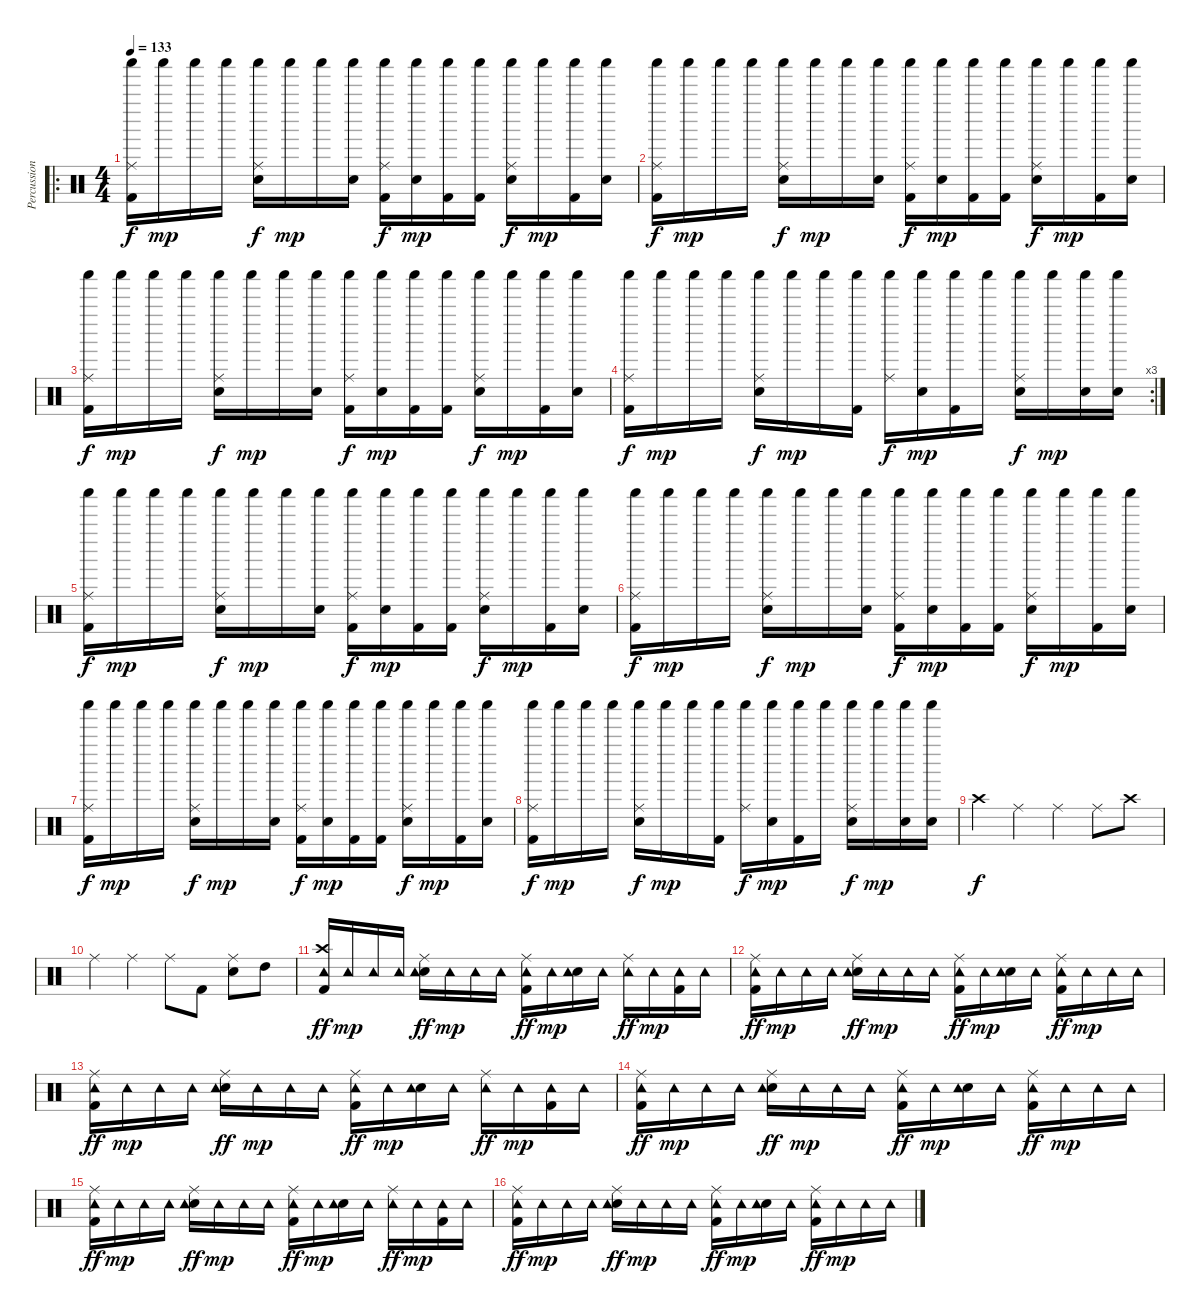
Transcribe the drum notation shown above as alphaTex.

\track ("Percussion" "Percussion") {instrument percussion}
\staff {score}
\articulation defaults
\ro
\ts (4 4)
\tempo 133
\clef neutral
\ks c
("Ride (middle)" "Kick (hit) 2" "Shaker (hit)").16{dy f} "Shaker (hit)".16{dy mp} "Shaker (hit)".16 "Shaker (hit)".16 ("Ride (middle)" "Electric Snare (hit)" "Shaker (hit)").16{dy f} "Shaker (hit)".16{dy mp} "Shaker (hit)".16 ("Electric Snare (hit)" "Shaker (hit)").16 ("Ride (middle)" "Kick (hit) 2" "Shaker (hit)").16{dy f} ("Electric Snare (hit)" "Shaker (hit)").16{dy mp} ("Kick (hit) 2" "Shaker (hit)").16 ("Kick (hit) 2" "Shaker (hit)").16 ("Ride (middle)" "Electric Snare (hit)" "Shaker (hit)").16{dy f} "Shaker (hit)".16{dy mp} ("Kick (hit) 2" "Shaker (hit)").16 ("Electric Snare (hit)" "Shaker (hit)").16 |
("Ride (middle)" "Kick (hit) 2" "Shaker (hit)").16{dy f} "Shaker (hit)".16{dy mp} "Shaker (hit)".16 "Shaker (hit)".16 ("Ride (middle)" "Electric Snare (hit)" "Shaker (hit)").16{dy f} "Shaker (hit)".16{dy mp} "Shaker (hit)".16 ("Electric Snare (hit)" "Shaker (hit)").16 ("Ride (middle)" "Kick (hit) 2" "Shaker (hit)").16{dy f} ("Electric Snare (hit)" "Shaker (hit)").16{dy mp} ("Kick (hit) 2" "Shaker (hit)").16 ("Kick (hit) 2" "Shaker (hit)").16 ("Ride (middle)" "Electric Snare (hit)" "Shaker (hit)").16{dy f} "Shaker (hit)".16{dy mp} ("Kick (hit) 2" "Shaker (hit)").16 ("Electric Snare (hit)" "Shaker (hit)").16 |
("Ride (middle)" "Kick (hit) 2" "Shaker (hit)").16{dy f} "Shaker (hit)".16{dy mp} "Shaker (hit)".16 "Shaker (hit)".16 ("Ride (middle)" "Electric Snare (hit)" "Shaker (hit)").16{dy f} "Shaker (hit)".16{dy mp} "Shaker (hit)".16 ("Electric Snare (hit)" "Shaker (hit)").16 ("Ride (middle)" "Kick (hit) 2" "Shaker (hit)").16{dy f} ("Electric Snare (hit)" "Shaker (hit)").16{dy mp} ("Kick (hit) 2" "Shaker (hit)").16 ("Kick (hit) 2" "Shaker (hit)").16 ("Ride (middle)" "Electric Snare (hit)" "Shaker (hit)").16{dy f} "Shaker (hit)".16{dy mp} ("Kick (hit) 2" "Shaker (hit)").16 ("Electric Snare (hit)" "Shaker (hit)").16 |
\rc 3
("Ride (middle)" "Kick (hit) 2" "Shaker (hit)").16{dy f} "Shaker (hit)".16{dy mp} "Shaker (hit)".16 "Shaker (hit)".16 ("Ride (middle)" "Electric Snare (hit)" "Shaker (hit)").16{dy f} "Shaker (hit)".16{dy mp} "Shaker (hit)".16 ("Kick (hit) 2" "Shaker (hit)").16 ("Ride (middle)" "Shaker (hit)").16{dy f} ("Electric Snare (hit)" "Shaker (hit)").16{dy mp} ("Kick (hit) 2" "Shaker (hit)").16 "Shaker (hit)".16 ("Ride (middle)" "Electric Snare (hit)" "Shaker (hit)").16{dy f} "Shaker (hit)".16{dy mp} ("Electric Snare (hit)" "Shaker (hit)").16 ("Electric Snare (hit)" "Shaker (hit)").16 |
("Ride (middle)" "Kick (hit) 2" "Shaker (hit)").16{dy f} "Shaker (hit)".16{dy mp} "Shaker (hit)".16 "Shaker (hit)".16 ("Ride (middle)" "Electric Snare (hit)" "Shaker (hit)").16{dy f} "Shaker (hit)".16{dy mp} "Shaker (hit)".16 ("Electric Snare (hit)" "Shaker (hit)").16 ("Ride (middle)" "Kick (hit) 2" "Shaker (hit)").16{dy f} ("Electric Snare (hit)" "Shaker (hit)").16{dy mp} ("Kick (hit) 2" "Shaker (hit)").16 ("Kick (hit) 2" "Shaker (hit)").16 ("Ride (middle)" "Electric Snare (hit)" "Shaker (hit)").16{dy f} "Shaker (hit)".16{dy mp} ("Kick (hit) 2" "Shaker (hit)").16 ("Electric Snare (hit)" "Shaker (hit)").16 |
("Ride (middle)" "Kick (hit) 2" "Shaker (hit)").16{dy f} "Shaker (hit)".16{dy mp} "Shaker (hit)".16 "Shaker (hit)".16 ("Ride (middle)" "Electric Snare (hit)" "Shaker (hit)").16{dy f} "Shaker (hit)".16{dy mp} "Shaker (hit)".16 ("Electric Snare (hit)" "Shaker (hit)").16 ("Ride (middle)" "Kick (hit) 2" "Shaker (hit)").16{dy f} ("Electric Snare (hit)" "Shaker (hit)").16{dy mp} ("Kick (hit) 2" "Shaker (hit)").16 ("Kick (hit) 2" "Shaker (hit)").16 ("Ride (middle)" "Electric Snare (hit)" "Shaker (hit)").16{dy f} "Shaker (hit)".16{dy mp} ("Kick (hit) 2" "Shaker (hit)").16 ("Electric Snare (hit)" "Shaker (hit)").16 |
("Ride (middle)" "Kick (hit) 2" "Shaker (hit)").16{dy f} "Shaker (hit)".16{dy mp} "Shaker (hit)".16 "Shaker (hit)".16 ("Ride (middle)" "Electric Snare (hit)" "Shaker (hit)").16{dy f} "Shaker (hit)".16{dy mp} "Shaker (hit)".16 ("Electric Snare (hit)" "Shaker (hit)").16 ("Ride (middle)" "Kick (hit) 2" "Shaker (hit)").16{dy f} ("Electric Snare (hit)" "Shaker (hit)").16{dy mp} ("Kick (hit) 2" "Shaker (hit)").16 ("Kick (hit) 2" "Shaker (hit)").16 ("Ride (middle)" "Electric Snare (hit)" "Shaker (hit)").16{dy f} "Shaker (hit)".16{dy mp} ("Kick (hit) 2" "Shaker (hit)").16 ("Electric Snare (hit)" "Shaker (hit)").16 |
("Ride (middle)" "Kick (hit) 2" "Shaker (hit)").16{dy f} "Shaker (hit)".16{dy mp} "Shaker (hit)".16 "Shaker (hit)".16 ("Ride (middle)" "Electric Snare (hit)" "Shaker (hit)").16{dy f} "Shaker (hit)".16{dy mp} "Shaker (hit)".16 ("Kick (hit) 2" "Shaker (hit)").16 ("Ride (middle)" "Shaker (hit)").16{dy f} ("Electric Snare (hit)" "Shaker (hit)").16{dy mp} ("Kick (hit) 2" "Shaker (hit)").16 "Shaker (hit)".16 ("Ride (middle)" "Electric Snare (hit)" "Shaker (hit)").16{dy f} "Shaker (hit)".16{dy mp} ("Electric Snare (hit)" "Shaker (hit)").16 ("Electric Snare (hit)" "Shaker (hit)").16 |
"Crash high (hit)".4{dy f} "Ride (middle)".4 "Ride (middle)".4 "Ride (middle)".8 "Crash high (hit)".8 |
"Ride (middle)".4 "Ride (middle)".4 "Ride (middle)".8 "Kick (hit) 2".8 ("Ride (middle)" "Electric Snare (hit)").8 "High Tom (hit)".8 |
("Crash high (hit)" "Kick (hit) 2" "Tambourine (hit)").16{dy ff} "Tambourine (hit)".16{dy mp} "Tambourine (hit)".16 "Tambourine (hit)".16 ("Ride (middle)" "Electric Snare (hit)" "Tambourine (hit)").16{dy ff} "Tambourine (hit)".16{dy mp} "Tambourine (hit)".16 "Tambourine (hit)".16 ("Ride (middle)" "Kick (hit) 2" "Tambourine (hit)").16{dy ff} "Tambourine (hit)".16{dy mp} ("Electric Snare (hit)" "Tambourine (hit)").16 "Tambourine (hit)".16 ("Ride (middle)" "Tambourine (hit)").16{dy ff} "Tambourine (hit)".16{dy mp} ("Kick (hit) 2" "Tambourine (hit)").16 "Tambourine (hit)".16 |
("Ride (middle)" "Kick (hit) 2" "Tambourine (hit)").16{dy ff} "Tambourine (hit)".16{dy mp} "Tambourine (hit)".16 "Tambourine (hit)".16 ("Ride (middle)" "Electric Snare (hit)" "Tambourine (hit)").16{dy ff} "Tambourine (hit)".16{dy mp} "Tambourine (hit)".16 "Tambourine (hit)".16 ("Ride (middle)" "Kick (hit) 2" "Tambourine (hit)").16{dy ff} "Tambourine (hit)".16{dy mp} ("Electric Snare (hit)" "Tambourine (hit)").16 "Tambourine (hit)".16 ("Ride (middle)" "Kick (hit) 2" "Tambourine (hit)").16{dy ff} "Tambourine (hit)".16{dy mp} "Tambourine (hit)".16 "Tambourine (hit)".16 |
("Ride (middle)" "Kick (hit) 2" "Tambourine (hit)").16{dy ff} "Tambourine (hit)".16{dy mp} "Tambourine (hit)".16 "Tambourine (hit)".16 ("Ride (middle)" "Electric Snare (hit)" "Tambourine (hit)").16{dy ff} "Tambourine (hit)".16{dy mp} "Tambourine (hit)".16 "Tambourine (hit)".16 ("Ride (middle)" "Kick (hit) 2" "Tambourine (hit)").16{dy ff} "Tambourine (hit)".16{dy mp} ("Electric Snare (hit)" "Tambourine (hit)").16 "Tambourine (hit)".16 ("Ride (middle)" "Tambourine (hit)").16{dy ff} "Tambourine (hit)".16{dy mp} ("Kick (hit) 2" "Tambourine (hit)").16 "Tambourine (hit)".16 |
("Ride (middle)" "Kick (hit) 2" "Tambourine (hit)").16{dy ff} "Tambourine (hit)".16{dy mp} "Tambourine (hit)".16 "Tambourine (hit)".16 ("Ride (middle)" "Electric Snare (hit)" "Tambourine (hit)").16{dy ff} "Tambourine (hit)".16{dy mp} "Tambourine (hit)".16 "Tambourine (hit)".16 ("Ride (middle)" "Kick (hit) 2" "Tambourine (hit)").16{dy ff} "Tambourine (hit)".16{dy mp} ("Electric Snare (hit)" "Tambourine (hit)").16 "Tambourine (hit)".16 ("Ride (middle)" "Kick (hit) 2" "Tambourine (hit)").16{dy ff} "Tambourine (hit)".16{dy mp} "Tambourine (hit)".16 "Tambourine (hit)".16 |
("Ride (middle)" "Kick (hit) 2" "Tambourine (hit)").16{dy ff} "Tambourine (hit)".16{dy mp} "Tambourine (hit)".16 "Tambourine (hit)".16 ("Ride (middle)" "Electric Snare (hit)" "Tambourine (hit)").16{dy ff} "Tambourine (hit)".16{dy mp} "Tambourine (hit)".16 "Tambourine (hit)".16 ("Ride (middle)" "Kick (hit) 2" "Tambourine (hit)").16{dy ff} "Tambourine (hit)".16{dy mp} ("Electric Snare (hit)" "Tambourine (hit)").16 "Tambourine (hit)".16 ("Ride (middle)" "Tambourine (hit)").16{dy ff} "Tambourine (hit)".16{dy mp} ("Kick (hit) 2" "Tambourine (hit)").16 "Tambourine (hit)".16 |
("Ride (middle)" "Kick (hit) 2" "Tambourine (hit)").16{dy ff} "Tambourine (hit)".16{dy mp} "Tambourine (hit)".16 "Tambourine (hit)".16 ("Ride (middle)" "Electric Snare (hit)" "Tambourine (hit)").16{dy ff} "Tambourine (hit)".16{dy mp} "Tambourine (hit)".16 "Tambourine (hit)".16 ("Ride (middle)" "Kick (hit) 2" "Tambourine (hit)").16{dy ff} "Tambourine (hit)".16{dy mp} ("Electric Snare (hit)" "Tambourine (hit)").16 "Tambourine (hit)".16 ("Ride (middle)" "Kick (hit) 2" "Tambourine (hit)").16{dy ff} "Tambourine (hit)".16{dy mp} "Tambourine (hit)".16 "Tambourine (hit)".16
